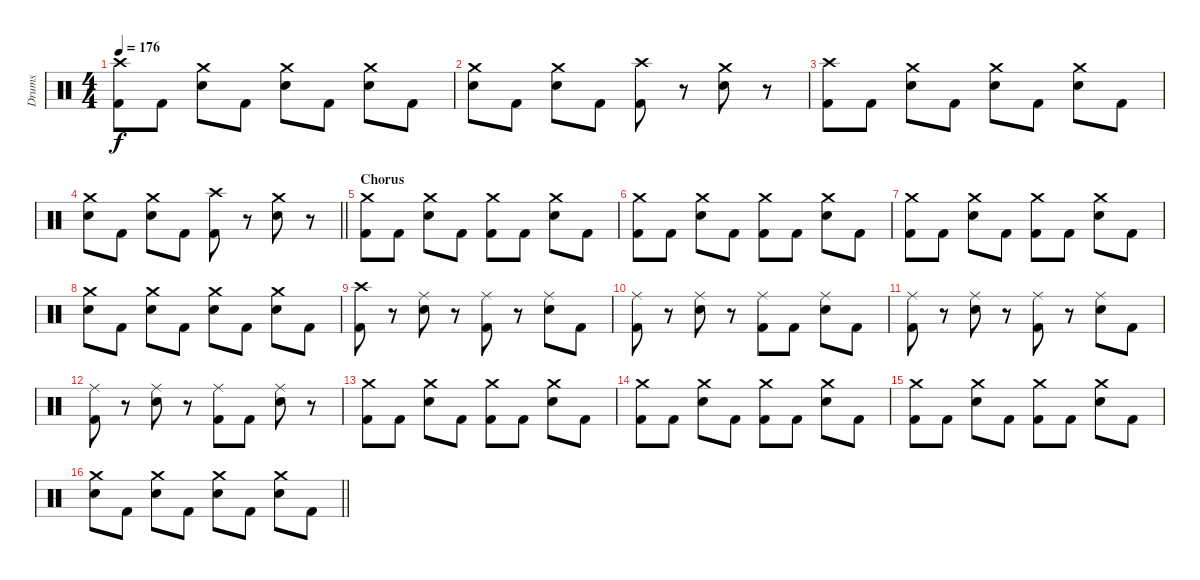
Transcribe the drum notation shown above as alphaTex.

\track ("Drums" "Drums") {instrument percussion}
\staff {score}
\articulation defaults
\ts (4 4)
\tempo 176
\clef neutral
\ks c
("Crash high (hit)" "Kick (hit) 2").8{dy f} "Kick (hit) 2".8 ("Crash medium (hit)" "Electric Snare (hit)").8 "Kick (hit) 2".8 ("Crash medium (hit)" "Electric Snare (hit)").8 "Kick (hit) 2".8 ("Crash medium (hit)" "Electric Snare (hit)").8 "Kick (hit) 2".8 |
("Crash medium (hit)" "Electric Snare (hit)").8 "Kick (hit) 2".8 ("Crash medium (hit)" "Electric Snare (hit)").8 "Kick (hit) 2".8 ("Crash high (hit)" "Kick (hit) 2").8 r.8 ("Crash medium (hit)" "Electric Snare (hit)").8 r.8 |
("Crash high (hit)" "Kick (hit) 2").8 "Kick (hit) 2".8 ("Crash medium (hit)" "Electric Snare (hit)").8 "Kick (hit) 2".8 ("Crash medium (hit)" "Electric Snare (hit)").8 "Kick (hit) 2".8 ("Crash medium (hit)" "Electric Snare (hit)").8 "Kick (hit) 2".8 |
\barLineRight lightlight
("Crash medium (hit)" "Electric Snare (hit)").8 "Kick (hit) 2".8 ("Crash medium (hit)" "Electric Snare (hit)").8 "Kick (hit) 2".8 ("Crash high (hit)" "Kick (hit) 2").8 r.8 ("Crash medium (hit)" "Electric Snare (hit)").8 r.8 |
\section ("" "Chorus")
("Crash medium (hit)" "Kick (hit) 2").8 "Kick (hit) 2".8 ("Crash medium (hit)" "Electric Snare (hit)").8 "Kick (hit) 2".8 ("Crash medium (hit)" "Kick (hit) 2").8 "Kick (hit) 2".8 ("Crash medium (hit)" "Electric Snare (hit)").8 "Kick (hit) 2".8 |
("Crash medium (hit)" "Kick (hit) 2").8 "Kick (hit) 2".8 ("Crash medium (hit)" "Electric Snare (hit)").8 "Kick (hit) 2".8 ("Crash medium (hit)" "Kick (hit) 2").8 "Kick (hit) 2".8 ("Crash medium (hit)" "Electric Snare (hit)").8 "Kick (hit) 2".8 |
("Crash medium (hit)" "Kick (hit) 2").8 "Kick (hit) 2".8 ("Crash medium (hit)" "Electric Snare (hit)").8 "Kick (hit) 2".8 ("Crash medium (hit)" "Kick (hit) 2").8 "Kick (hit) 2".8 ("Crash medium (hit)" "Electric Snare (hit)").8 "Kick (hit) 2".8 |
("Crash medium (hit)" "Electric Snare (hit)").8 "Kick (hit) 2".8 ("Crash medium (hit)" "Electric Snare (hit)").8 "Kick (hit) 2".8 ("Crash medium (hit)" "Electric Snare (hit)").8 "Kick (hit) 2".8 ("Crash medium (hit)" "Electric Snare (hit)").8 "Kick (hit) 2".8 |
("Crash high (hit)" "Kick (hit) 2").8 r.8 ("Ride (middle)" "Electric Snare (hit)").8 r.8 ("Ride (middle)" "Kick (hit) 2").8 r.8 ("Ride (middle)" "Electric Snare (hit)").8 "Kick (hit) 2".8 |
("Ride (middle)" "Kick (hit) 2").8 r.8 ("Ride (middle)" "Electric Snare (hit)").8 r.8 ("Ride (middle)" "Kick (hit) 2").8 "Kick (hit) 2".8 ("Ride (middle)" "Electric Snare (hit)").8 "Kick (hit) 2".8 |
("Ride (middle)" "Kick (hit) 2").8 r.8 ("Ride (middle)" "Electric Snare (hit)").8 r.8 ("Ride (middle)" "Kick (hit) 2").8 r.8 ("Ride (middle)" "Electric Snare (hit)").8 "Kick (hit) 2".8 |
("Ride (middle)" "Kick (hit) 2").8 r.8 ("Ride (middle)" "Electric Snare (hit)").8 r.8 ("Ride (middle)" "Kick (hit) 2").8 "Kick (hit) 2".8 ("Ride (middle)" "Electric Snare (hit)").8 r.8 |
("Crash medium (hit)" "Kick (hit) 2").8 "Kick (hit) 2".8 ("Crash medium (hit)" "Electric Snare (hit)").8 "Kick (hit) 2".8 ("Crash medium (hit)" "Kick (hit) 2").8 "Kick (hit) 2".8 ("Crash medium (hit)" "Electric Snare (hit)").8 "Kick (hit) 2".8 |
("Crash medium (hit)" "Kick (hit) 2").8 "Kick (hit) 2".8 ("Crash medium (hit)" "Electric Snare (hit)").8 "Kick (hit) 2".8 ("Crash medium (hit)" "Kick (hit) 2").8 "Kick (hit) 2".8 ("Crash medium (hit)" "Electric Snare (hit)").8 "Kick (hit) 2".8 |
("Crash medium (hit)" "Kick (hit) 2").8 "Kick (hit) 2".8 ("Crash medium (hit)" "Electric Snare (hit)").8 "Kick (hit) 2".8 ("Crash medium (hit)" "Kick (hit) 2").8 "Kick (hit) 2".8 ("Crash medium (hit)" "Electric Snare (hit)").8 "Kick (hit) 2".8 |
\barLineRight lightlight
("Crash medium (hit)" "Electric Snare (hit)").8 "Kick (hit) 2".8 ("Crash medium (hit)" "Electric Snare (hit)").8 "Kick (hit) 2".8 ("Crash medium (hit)" "Electric Snare (hit)").8 "Kick (hit) 2".8 ("Crash medium (hit)" "Electric Snare (hit)").8 "Kick (hit) 2".8
